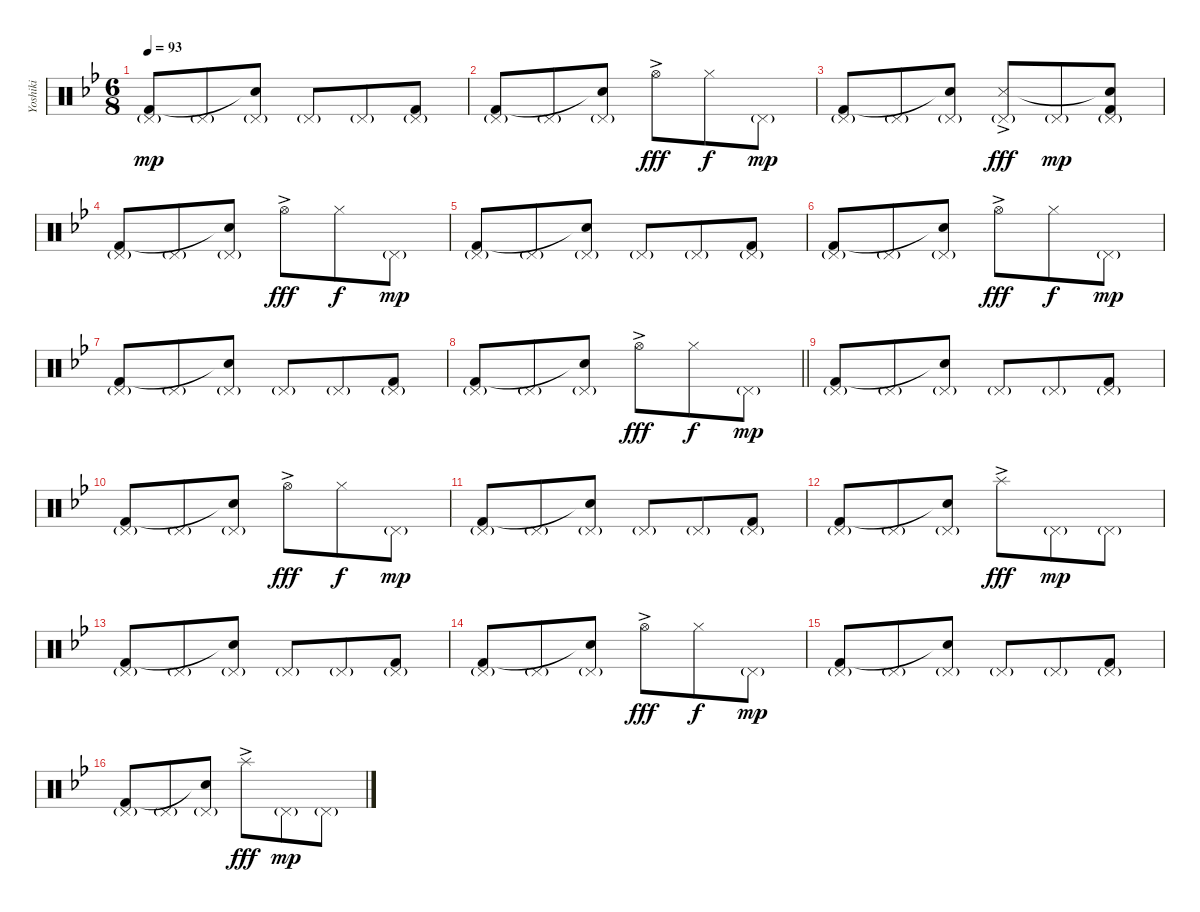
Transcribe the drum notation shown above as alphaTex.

\track ("Yoshiki" "Yoshiki") {instrument percussion}
\staff {score}
\articulation defaults
\ts (6 8)
\tempo 93
\clef neutral
\ks bb
("Pedal Hi-Hat (hit)"{g} "Kick (hit) 2").8{dy mp} "Pedal Hi-Hat (hit)"{g}.8 ("Pedal Hi-Hat (hit)"{g} "Snare (hit)"{t}).8 "Pedal Hi-Hat (hit)"{g}.8 "Pedal Hi-Hat (hit)"{g}.8 ("Pedal Hi-Hat (hit)"{g} "Kick (hit) 2").8 |
("Pedal Hi-Hat (hit)"{g} "Kick (hit) 2").8 "Pedal Hi-Hat (hit)"{g}.8 ("Pedal Hi-Hat (hit)"{g} "Snare (hit)"{t}).8 "Hi-Hat (open)"{ac}.8{dy fff} "Hi-Hat (closed)".8{dy f} "Pedal Hi-Hat (hit)"{g}.8{dy mp} |
("Pedal Hi-Hat (hit)"{g} "Kick (hit) 2").8 "Pedal Hi-Hat (hit)"{g}.8 ("Pedal Hi-Hat (hit)"{g} "Snare (hit)"{t}).8 ("Pedal Hi-Hat (hit)"{g} "Snare (side stick) 3"{ac}).8{dy fff} "Pedal Hi-Hat (hit)"{g}.8{dy mp} ("Pedal Hi-Hat (hit)"{g} "Snare (hit)"{t} "Kick (hit) 2").8 |
("Pedal Hi-Hat (hit)"{g} "Kick (hit) 2").8 "Pedal Hi-Hat (hit)"{g}.8 ("Pedal Hi-Hat (hit)"{g} "Snare (hit)"{t}).8 "Hi-Hat (open)"{ac}.8{dy fff} "Hi-Hat (closed)".8{dy f} "Pedal Hi-Hat (hit)"{g}.8{dy mp} |
("Pedal Hi-Hat (hit)"{g} "Kick (hit) 2").8 "Pedal Hi-Hat (hit)"{g}.8 ("Pedal Hi-Hat (hit)"{g} "Snare (hit)"{t}).8 "Pedal Hi-Hat (hit)"{g}.8 "Pedal Hi-Hat (hit)"{g}.8 ("Pedal Hi-Hat (hit)"{g} "Kick (hit) 2").8 |
("Pedal Hi-Hat (hit)"{g} "Kick (hit) 2").8 "Pedal Hi-Hat (hit)"{g}.8 ("Pedal Hi-Hat (hit)"{g} "Snare (hit)"{t}).8 "Hi-Hat (open)"{ac}.8{dy fff} "Hi-Hat (closed)".8{dy f} "Pedal Hi-Hat (hit)"{g}.8{dy mp} |
("Pedal Hi-Hat (hit)"{g} "Kick (hit) 2").8 "Pedal Hi-Hat (hit)"{g}.8 ("Pedal Hi-Hat (hit)"{g} "Snare (hit)"{t}).8 "Pedal Hi-Hat (hit)"{g}.8 "Pedal Hi-Hat (hit)"{g}.8 ("Pedal Hi-Hat (hit)"{g} "Kick (hit) 2").8 |
\barLineRight lightlight
("Pedal Hi-Hat (hit)"{g} "Kick (hit) 2").8 "Pedal Hi-Hat (hit)"{g}.8 ("Pedal Hi-Hat (hit)"{g} "Snare (hit)"{t}).8 "Hi-Hat (open)"{ac}.8{dy fff} "Hi-Hat (closed)".8{dy f} "Pedal Hi-Hat (hit)"{g}.8{dy mp} |
("Pedal Hi-Hat (hit)"{g} "Kick (hit) 2").8 "Pedal Hi-Hat (hit)"{g}.8 ("Pedal Hi-Hat (hit)"{g} "Snare (hit)"{t}).8 "Pedal Hi-Hat (hit)"{g}.8 "Pedal Hi-Hat (hit)"{g}.8 ("Pedal Hi-Hat (hit)"{g} "Kick (hit) 2").8 |
("Pedal Hi-Hat (hit)"{g} "Kick (hit) 2").8 "Pedal Hi-Hat (hit)"{g}.8 ("Pedal Hi-Hat (hit)"{g} "Snare (hit)"{t}).8 "Hi-Hat (open)"{ac}.8{dy fff} "Hi-Hat (closed)".8{dy f} "Pedal Hi-Hat (hit)"{g}.8{dy mp} |
("Pedal Hi-Hat (hit)"{g} "Kick (hit) 2").8 "Pedal Hi-Hat (hit)"{g}.8 ("Pedal Hi-Hat (hit)"{g} "Snare (hit)"{t}).8 "Pedal Hi-Hat (hit)"{g}.8 "Pedal Hi-Hat (hit)"{g}.8 ("Pedal Hi-Hat (hit)"{g} "Kick (hit) 2").8 |
("Pedal Hi-Hat (hit)"{g} "Kick (hit) 2").8 "Pedal Hi-Hat (hit)"{g}.8 ("Pedal Hi-Hat (hit)"{g} "Snare (hit)"{t}).8 "Splash (hit)"{ac}.8{dy fff} "Pedal Hi-Hat (hit)"{g}.8{dy mp} "Pedal Hi-Hat (hit)"{g}.8 |
("Pedal Hi-Hat (hit)"{g} "Kick (hit) 2").8 "Pedal Hi-Hat (hit)"{g}.8 ("Pedal Hi-Hat (hit)"{g} "Snare (hit)"{t}).8 "Pedal Hi-Hat (hit)"{g}.8 "Pedal Hi-Hat (hit)"{g}.8 ("Pedal Hi-Hat (hit)"{g} "Kick (hit) 2").8 |
("Pedal Hi-Hat (hit)"{g} "Kick (hit) 2").8 "Pedal Hi-Hat (hit)"{g}.8 ("Pedal Hi-Hat (hit)"{g} "Snare (hit)"{t}).8 "Hi-Hat (open)"{ac}.8{dy fff} "Hi-Hat (closed)".8{dy f} "Pedal Hi-Hat (hit)"{g}.8{dy mp} |
("Pedal Hi-Hat (hit)"{g} "Kick (hit) 2").8 "Pedal Hi-Hat (hit)"{g}.8 ("Pedal Hi-Hat (hit)"{g} "Snare (hit)"{t}).8 "Pedal Hi-Hat (hit)"{g}.8 "Pedal Hi-Hat (hit)"{g}.8 ("Pedal Hi-Hat (hit)"{g} "Kick (hit) 2").8 |
("Pedal Hi-Hat (hit)"{g} "Kick (hit) 2").8 "Pedal Hi-Hat (hit)"{g}.8 ("Pedal Hi-Hat (hit)"{g} "Snare (hit)"{t}).8 "Splash (hit)"{ac}.8{dy fff} "Pedal Hi-Hat (hit)"{g}.8{dy mp} "Pedal Hi-Hat (hit)"{g}.8
